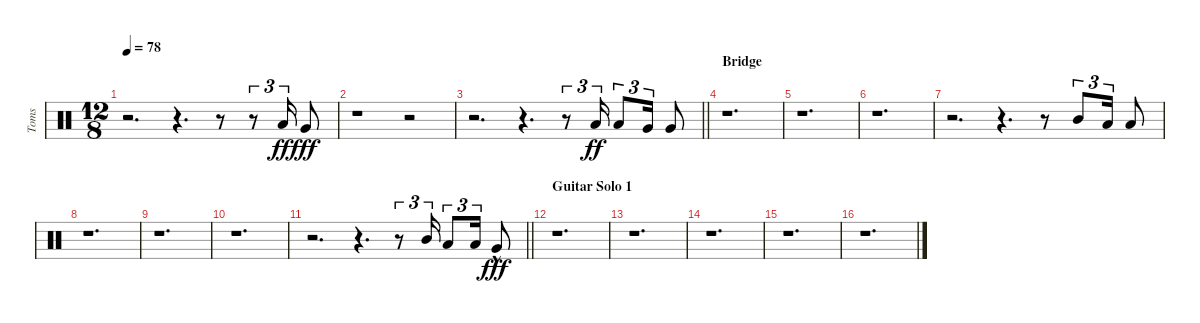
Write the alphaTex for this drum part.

\track ("Toms" "Toms") {instrument percussion}
\staff {score}
\articulation defaults
\ts (12 8)
\tempo 78
\clef neutral
\ks c
r.2{d dy ff} r.4{d} r.8 r.8{tu (3 2) beam Up} "Low Tom (hit)".16{tu (3 2) beam Up} "Very Low Tom (hit)".8{dy fff balance 6 beam Up} |
r.1 r.2 |
\barLineRight lightlight
r.2{d} r.4{d} r.8{tu (3 2) balance 8 beam Up} "Low Tom (hit)".16{tu (3 2) dy ff beam Up} "Low Tom (hit)".8{tu (3 2) beam Up} "Very Low Tom (hit)".16{tu (3 2) balance 5 beam Up} "Very Low Tom (hit)".8{beam Up} |
\section ("" "Bridge")
r.1{d} |
r.1{d} |
r.1{d} |
r.2{d} r.4{d} r.8{balance 8} "Mid Tom (hit)".8{tu (3 2) beam Up} "Low Tom (hit)".16{tu (3 2) balance 5 beam Up} "Low Tom (hit)".8{beam Up} |
r.1{d} |
r.1{d} |
r.1{d} |
\barLineRight lightlight
r.2{d} r.4{d} r.8{tu (3 2) balance 8 beam Up} "Mid Tom (hit)".16{tu (3 2) beam Up} "Low Tom (hit)".8{tu (3 2) beam Up} "Low Tom (hit)".16{tu (3 2) beam Up} "Very Low Tom (hit)"{hac}.8{dy fff balance 5 beam Up} |
\section ("" "Guitar Solo 1")
r.1{d} |
r.1{d} |
r.1{d} |
r.1{d} |
r.1{d}
